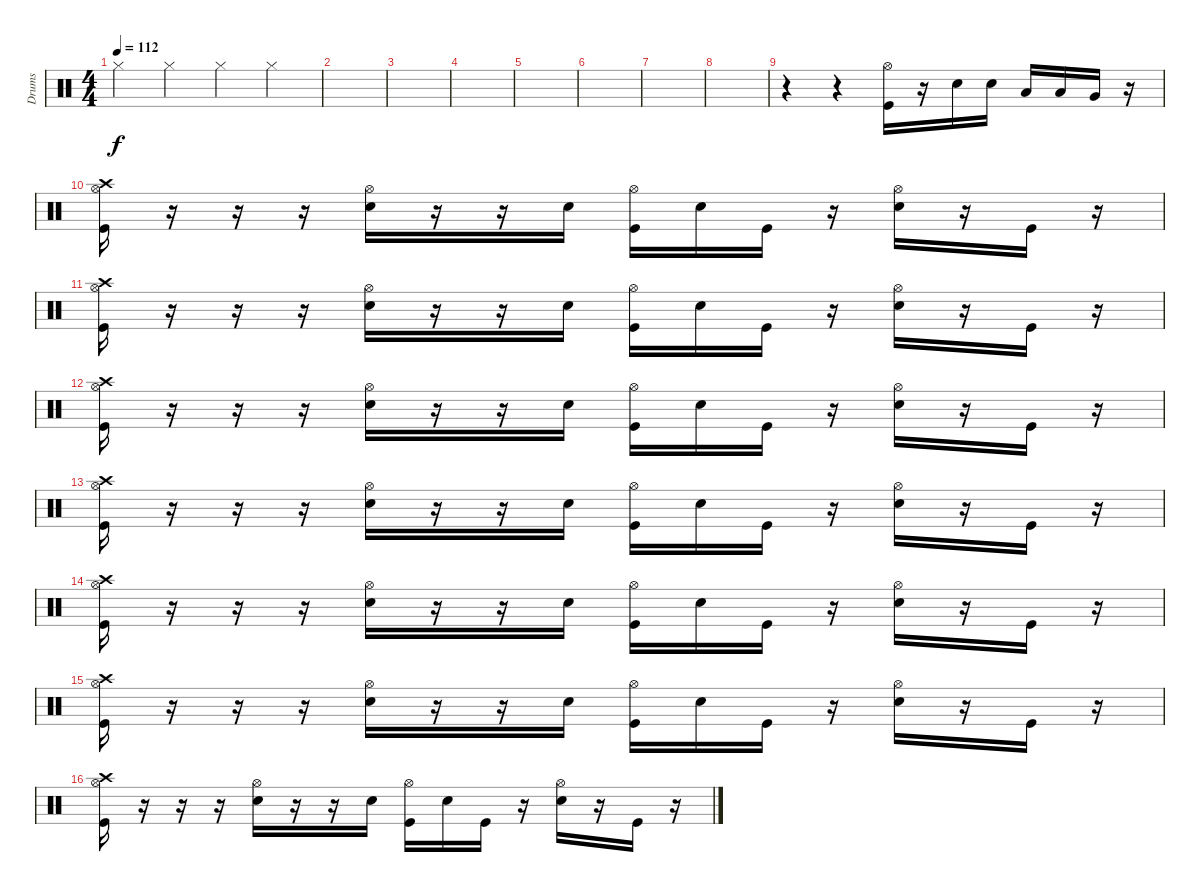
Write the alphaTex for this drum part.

\track ("Drums" "Drums") {instrument percussion}
\staff {score}
\articulation defaults
\ts (4 4)
\tempo 112
\clef neutral
\ks c "Hi-Hat (closed)".4{dy f} "Hi-Hat (closed)".4 "Hi-Hat (closed)".4 "Hi-Hat (closed)".4
|
|
|
|
|
|
|
|
r.4 r.4 ("Hi-Hat (open)" "Kick (hit)").16 r.16 "Electric Snare (hit)".16 "Electric Snare (hit)".16 "Low Floor Tom (hit)".16 "Low Floor Tom (hit)".16 "Very Low Tom (hit)".16 r.16 |
("Hi-Hat (open)" "Kick (hit)" "Crash high (hit)").16 r.16 r.16 r.16 ("Hi-Hat (open)" "Electric Snare (hit)").16 r.16 r.16 "Electric Snare (hit)".16 ("Hi-Hat (open)" "Kick (hit)").16 "Electric Snare (hit)".16 "Kick (hit)".16 r.16 ("Hi-Hat (open)" "Electric Snare (hit)").16 r.16 "Kick (hit)".16 r.16 |
("Hi-Hat (open)" "Kick (hit)" "Crash high (hit)").16 r.16 r.16 r.16 ("Hi-Hat (open)" "Electric Snare (hit)").16 r.16 r.16 "Electric Snare (hit)".16 ("Hi-Hat (open)" "Kick (hit)").16 "Electric Snare (hit)".16 "Kick (hit)".16 r.16 ("Hi-Hat (open)" "Electric Snare (hit)").16 r.16 "Kick (hit)".16 r.16 |
("Hi-Hat (open)" "Kick (hit)" "Crash high (hit)").16 r.16 r.16 r.16 ("Hi-Hat (open)" "Electric Snare (hit)").16 r.16 r.16 "Electric Snare (hit)".16 ("Hi-Hat (open)" "Kick (hit)").16 "Electric Snare (hit)".16 "Kick (hit)".16 r.16 ("Hi-Hat (open)" "Electric Snare (hit)").16 r.16 "Kick (hit)".16 r.16 |
("Hi-Hat (open)" "Kick (hit)" "Crash high (hit)").16 r.16 r.16 r.16 ("Hi-Hat (open)" "Electric Snare (hit)").16 r.16 r.16 "Electric Snare (hit)".16 ("Hi-Hat (open)" "Kick (hit)").16 "Electric Snare (hit)".16 "Kick (hit)".16 r.16 ("Hi-Hat (open)" "Electric Snare (hit)").16 r.16 "Kick (hit)".16 r.16 |
("Hi-Hat (open)" "Kick (hit)" "Crash high (hit)").16 r.16 r.16 r.16 ("Hi-Hat (open)" "Electric Snare (hit)").16 r.16 r.16 "Electric Snare (hit)".16 ("Hi-Hat (open)" "Kick (hit)").16 "Electric Snare (hit)".16 "Kick (hit)".16 r.16 ("Hi-Hat (open)" "Electric Snare (hit)").16 r.16 "Kick (hit)".16 r.16 |
("Hi-Hat (open)" "Kick (hit)" "Crash high (hit)").16 r.16 r.16 r.16 ("Hi-Hat (open)" "Electric Snare (hit)").16 r.16 r.16 "Electric Snare (hit)".16 ("Hi-Hat (open)" "Kick (hit)").16 "Electric Snare (hit)".16 "Kick (hit)".16 r.16 ("Hi-Hat (open)" "Electric Snare (hit)").16 r.16 "Kick (hit)".16 r.16 |
("Hi-Hat (open)" "Kick (hit)" "Crash high (hit)").16 r.16 r.16 r.16 ("Hi-Hat (open)" "Electric Snare (hit)").16 r.16 r.16 "Electric Snare (hit)".16 ("Hi-Hat (open)" "Kick (hit)").16 "Electric Snare (hit)".16 "Kick (hit)".16 r.16 ("Hi-Hat (open)" "Electric Snare (hit)").16 r.16 "Kick (hit)".16 r.16
